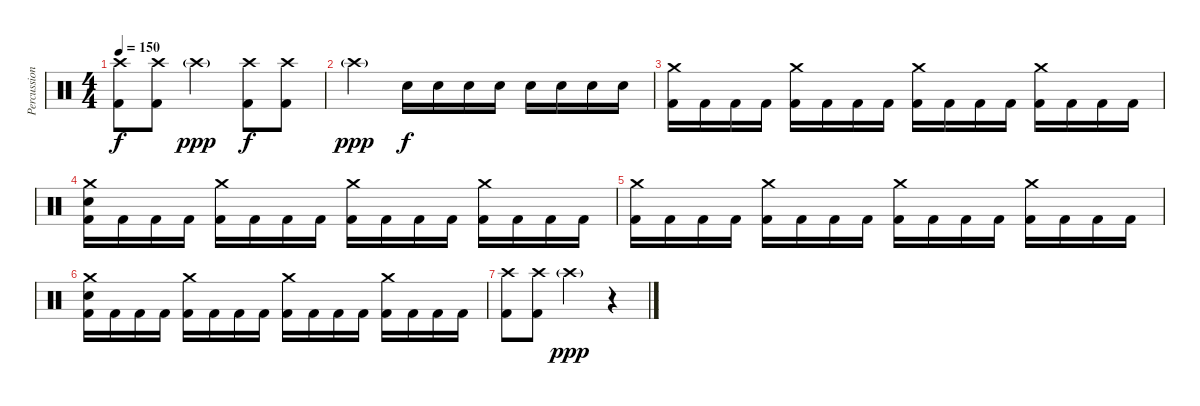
\track ("Percussion" "Percussion") {instrument percussion}
\staff {score}
\articulation defaults
\ts (4 4)
\tempo 150
\clef neutral
\ks c
("Kick (hit) 2" "Crash high (hit)").8{dy f} ("Kick (hit) 2" "Crash high (hit)").8 "Crash high (hit)"{g}.2{dy ppp} ("Kick (hit) 2" "Crash high (hit)").8{dy f} ("Kick (hit) 2" "Crash high (hit)").8 |
"Crash high (hit)"{g}.2{dy ppp} "Electric Snare (hit)".16{dy f} "Electric Snare (hit)".16 "Electric Snare (hit)".16 "Electric Snare (hit)".16 "Electric Snare (hit)".16 "Electric Snare (hit)".16 "Electric Snare (hit)".16 "Electric Snare (hit)".16 |
("Kick (hit) 2" "Crash medium (hit)").16 "Kick (hit) 2".16 "Kick (hit) 2".16 "Kick (hit) 2".16 ("Kick (hit) 2" "Crash medium (hit)").16 "Kick (hit) 2".16 "Kick (hit) 2".16 "Kick (hit) 2".16 ("Kick (hit) 2" "Crash medium (hit)").16 "Kick (hit) 2".16 "Kick (hit) 2".16 "Kick (hit) 2".16 ("Kick (hit) 2" "Crash medium (hit)").16 "Kick (hit) 2".16 "Kick (hit) 2".16 "Kick (hit) 2".16 |
("Kick (hit) 2" "Electric Snare (hit)" "Crash medium (hit)").16 "Kick (hit) 2".16 "Kick (hit) 2".16 "Kick (hit) 2".16 ("Kick (hit) 2" "Crash medium (hit)").16 "Kick (hit) 2".16 "Kick (hit) 2".16 "Kick (hit) 2".16 ("Kick (hit) 2" "Crash medium (hit)").16 "Kick (hit) 2".16 "Kick (hit) 2".16 "Kick (hit) 2".16 ("Kick (hit) 2" "Crash medium (hit)").16 "Kick (hit) 2".16 "Kick (hit) 2".16 "Kick (hit) 2".16 |
("Kick (hit) 2" "Crash medium (hit)").16 "Kick (hit) 2".16 "Kick (hit) 2".16 "Kick (hit) 2".16 ("Kick (hit) 2" "Crash medium (hit)").16 "Kick (hit) 2".16 "Kick (hit) 2".16 "Kick (hit) 2".16 ("Kick (hit) 2" "Crash medium (hit)").16 "Kick (hit) 2".16 "Kick (hit) 2".16 "Kick (hit) 2".16 ("Kick (hit) 2" "Crash medium (hit)").16 "Kick (hit) 2".16 "Kick (hit) 2".16 "Kick (hit) 2".16 |
("Kick (hit) 2" "Electric Snare (hit)" "Crash medium (hit)").16 "Kick (hit) 2".16 "Kick (hit) 2".16 "Kick (hit) 2".16 ("Kick (hit) 2" "Crash medium (hit)").16 "Kick (hit) 2".16 "Kick (hit) 2".16 "Kick (hit) 2".16 ("Kick (hit) 2" "Crash medium (hit)").16 "Kick (hit) 2".16 "Kick (hit) 2".16 "Kick (hit) 2".16 ("Kick (hit) 2" "Crash medium (hit)").16 "Kick (hit) 2".16 "Kick (hit) 2".16 "Kick (hit) 2".16 |
("Kick (hit) 2" "Crash high (hit)").8 ("Kick (hit) 2" "Crash high (hit)").8 "Crash high (hit)"{g}.2{dy ppp} r.4
